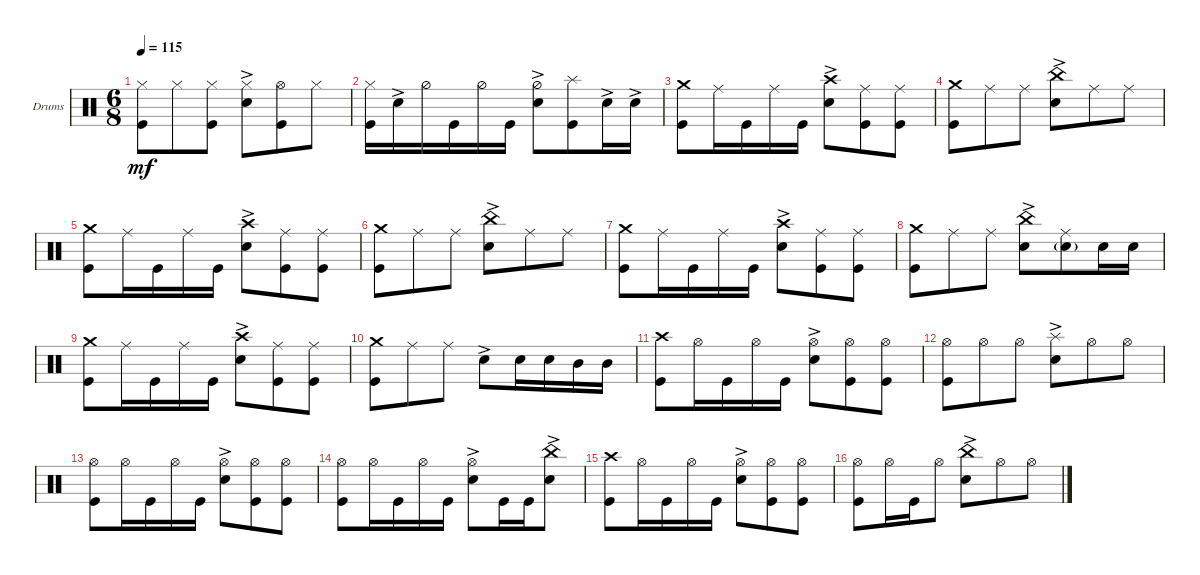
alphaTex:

\bracketExtendMode groupsimilarinstruments
\firstSystemTrackNameOrientation horizontal
\otherSystemsTrackNameOrientation horizontal
\track ("Drumkit" "Drums") {instrument percussion}
\staff {score}
\articulation defaults
\ts (6 8)
\tempo 115
\clef neutral
\ks c
("Kick (hit)" "Hi-Hat (closed)").8{dy mf} "Hi-Hat (closed)".8 ("Kick (hit)" "Hi-Hat (closed)").8 ("Snare (hit) 2"{ac} "Hi-Hat (closed)").8 ("Kick (hit)" "Hi-Hat (open)").8 "Hi-Hat (closed)".8 |
("Kick (hit)" "Hi-Hat (closed)").16 "Snare (hit) 2"{ac}.16 "Hi-Hat (half)".16 "Kick (hit)".16 "Hi-Hat (half)".16 "Kick (hit)".16 ("Snare (hit) 2"{ac} "Hi-Hat (half)").8 ("Kick (hit)" "Splash (hit)").8 "Snare (hit) 2"{ac}.16 "Snare (hit) 2"{ac}.16 |
("Kick (hit)" "Crash medium (hit)").8 "Ride (middle)".16 "Kick (hit)".16 "Ride (middle)".16 "Kick (hit)".16 ("Snare (hit) 2"{ac} "Crash high (hit)").8 ("Ride (middle)" "Kick (hit)").8 ("Ride (middle)" "Kick (hit)").8 |
("Crash medium (hit)" "Kick (hit)").8 "Ride (middle)".8 "Ride (middle)".8 ("Snare (hit) 2"{ac} "China (hit)").8 "Ride (middle)".8 "Ride (middle)".8 |
("Kick (hit)" "Crash medium (hit)").8 "Ride (middle)".16 "Kick (hit)".16 "Ride (middle)".16 "Kick (hit)".16 ("Snare (hit) 2"{ac} "Crash high (hit)").8 ("Ride (middle)" "Kick (hit)").8 ("Ride (middle)" "Kick (hit)").8 |
("Crash medium (hit)" "Kick (hit)").8 "Ride (middle)".8 "Ride (middle)".8 ("Snare (hit) 2"{ac} "China (hit)").8 "Ride (middle)".8 "Ride (middle)".8 |
("Kick (hit)" "Crash medium (hit)").8 "Ride (middle)".16 "Kick (hit)".16 "Ride (middle)".16 "Kick (hit)".16 ("Snare (hit) 2"{ac} "Crash high (hit)").8 ("Ride (middle)" "Kick (hit)").8 ("Ride (middle)" "Kick (hit)").8 |
("Crash medium (hit)" "Kick (hit)").8 "Ride (middle)".8 "Ride (middle)".8 ("Snare (hit) 2"{ac} "China (hit)").8 ("Ride (middle)" "Snare (hit) 2"{g}).8 "Snare (hit) 2".16 "Snare (hit) 2".16 |
("Kick (hit)" "Crash medium (hit)").8 "Ride (middle)".16 "Kick (hit)".16 "Ride (middle)".16 "Kick (hit)".16 ("Snare (hit) 2"{ac} "Crash high (hit)").8 ("Ride (middle)" "Kick (hit)").8 ("Ride (middle)" "Kick (hit)").8 |
("Crash medium (hit)" "Kick (hit)").8 "Ride (middle)".8 "Ride (middle)".8 "Snare (hit) 2"{ac}.8 "Snare (hit) 2".16 "Snare (hit) 2".16 "Mid Tom (hit)".16 "Mid Tom (hit)".16 |
("Kick (hit)" "Crash high (hit)").8 "Hi-Hat (open)".16 "Kick (hit)".16 "Hi-Hat (open)".16 "Kick (hit)".16 ("Snare (hit) 2"{ac} "Hi-Hat (open)").8 ("Kick (hit)" "Hi-Hat (open)").8 ("Kick (hit)" "Hi-Hat (open)").8 |
("Kick (hit)" "Hi-Hat (open)").8 "Hi-Hat (open)".8 "Hi-Hat (open)".8 ("Snare (hit) 2"{ac} "Splash (hit)").8 "Hi-Hat (open)".8 "Hi-Hat (open)".8 |
("Kick (hit)" "Hi-Hat (open)").8 "Hi-Hat (open)".16 "Kick (hit)".16 "Hi-Hat (open)".16 "Kick (hit)".16 ("Snare (hit) 2"{ac} "Hi-Hat (open)").8 ("Kick (hit)" "Hi-Hat (open)").8 ("Kick (hit)" "Hi-Hat (open)").8 |
("Kick (hit)" "Hi-Hat (open)").8 "Hi-Hat (open)".16 "Kick (hit)".16 "Hi-Hat (open)".16 "Kick (hit)".16 ("Snare (hit) 2"{ac} "Hi-Hat (open)").8 "Kick (hit)".16 "Kick (hit)".16 ("Snare (hit) 2"{ac} "China (hit)").8 |
("Kick (hit)" "Crash high (hit)").8 "Hi-Hat (open)".16 "Kick (hit)".16 "Hi-Hat (open)".16 "Kick (hit)".16 ("Snare (hit) 2"{ac} "Hi-Hat (open)").8 ("Kick (hit)" "Hi-Hat (open)").8 ("Kick (hit)" "Hi-Hat (open)").8 |
("Kick (hit)" "Hi-Hat (open)").8 "Hi-Hat (open)".16 "Kick (hit)".16 "Hi-Hat (open)".8 ("Snare (hit) 2"{ac} "China (hit)").8 "Hi-Hat (open)".8 "Hi-Hat (open)".8
